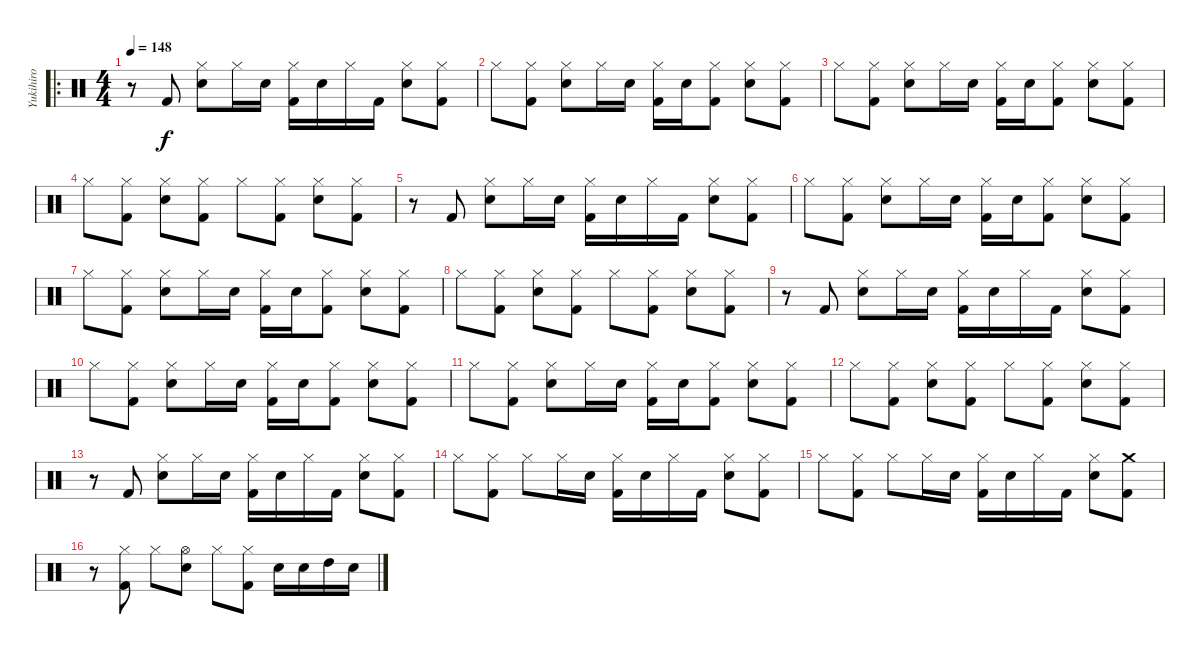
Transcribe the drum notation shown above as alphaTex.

\track ("Yukihiro" "Yukihiro") {instrument percussion}
\staff {score}
\articulation defaults
\ro
\ts (4 4)
\tempo 148
\clef neutral
\ks c
r.8{dy f} "Kick (hit) 2".8 ("Hi-Hat (closed)" "Snare (hit) 2").8 "Hi-Hat (closed)".16 "Snare (hit) 2".16 ("Hi-Hat (closed)" "Kick (hit) 2").16 "Snare (hit) 2".16 "Hi-Hat (closed)".16 "Kick (hit) 2".16 ("Hi-Hat (closed)" "Snare (hit) 2").8 ("Hi-Hat (closed)" "Kick (hit) 2").8 |
"Hi-Hat (closed)".8 ("Hi-Hat (closed)" "Kick (hit) 2").8 ("Hi-Hat (closed)" "Snare (hit) 2").8 "Hi-Hat (closed)".16 "Snare (hit) 2".16 ("Hi-Hat (closed)" "Kick (hit) 2").16 "Snare (hit) 2".16 ("Hi-Hat (closed)" "Kick (hit) 2").8 ("Hi-Hat (closed)" "Snare (hit) 2").8 ("Hi-Hat (closed)" "Kick (hit) 2").8 |
"Hi-Hat (closed)".8 ("Hi-Hat (closed)" "Kick (hit) 2").8 ("Hi-Hat (closed)" "Snare (hit) 2").8 "Hi-Hat (closed)".16 "Snare (hit) 2".16 ("Hi-Hat (closed)" "Kick (hit) 2").16 "Snare (hit) 2".16 ("Hi-Hat (closed)" "Kick (hit) 2").8 ("Hi-Hat (closed)" "Snare (hit) 2").8 ("Hi-Hat (closed)" "Kick (hit) 2").8 |
"Hi-Hat (closed)".8 ("Hi-Hat (closed)" "Kick (hit) 2").8 ("Hi-Hat (closed)" "Snare (hit) 2").8 ("Hi-Hat (closed)" "Kick (hit) 2").8 "Hi-Hat (closed)".8 ("Hi-Hat (closed)" "Kick (hit) 2").8 ("Hi-Hat (closed)" "Snare (hit) 2").8 ("Hi-Hat (closed)" "Kick (hit) 2").8 |
r.8 "Kick (hit) 2".8 ("Hi-Hat (closed)" "Snare (hit) 2").8 "Hi-Hat (closed)".16 "Snare (hit) 2".16 ("Hi-Hat (closed)" "Kick (hit) 2").16 "Snare (hit) 2".16 "Hi-Hat (closed)".16 "Kick (hit) 2".16 ("Hi-Hat (closed)" "Snare (hit) 2").8 ("Hi-Hat (closed)" "Kick (hit) 2").8 |
"Hi-Hat (closed)".8 ("Hi-Hat (closed)" "Kick (hit) 2").8 ("Hi-Hat (closed)" "Snare (hit) 2").8 "Hi-Hat (closed)".16 "Snare (hit) 2".16 ("Hi-Hat (closed)" "Kick (hit) 2").16 "Snare (hit) 2".16 ("Hi-Hat (closed)" "Kick (hit) 2").8 ("Hi-Hat (closed)" "Snare (hit) 2").8 ("Hi-Hat (closed)" "Kick (hit) 2").8 |
"Hi-Hat (closed)".8 ("Hi-Hat (closed)" "Kick (hit) 2").8 ("Hi-Hat (closed)" "Snare (hit) 2").8 "Hi-Hat (closed)".16 "Snare (hit) 2".16 ("Hi-Hat (closed)" "Kick (hit) 2").16 "Snare (hit) 2".16 ("Hi-Hat (closed)" "Kick (hit) 2").8 ("Hi-Hat (closed)" "Snare (hit) 2").8 ("Hi-Hat (closed)" "Kick (hit) 2").8 |
"Hi-Hat (closed)".8 ("Hi-Hat (closed)" "Kick (hit) 2").8 ("Hi-Hat (closed)" "Snare (hit) 2").8 ("Hi-Hat (closed)" "Kick (hit) 2").8 "Hi-Hat (closed)".8 ("Hi-Hat (closed)" "Kick (hit) 2").8 ("Hi-Hat (closed)" "Snare (hit) 2").8 ("Hi-Hat (closed)" "Kick (hit) 2").8 |
r.8 "Kick (hit) 2".8 ("Hi-Hat (closed)" "Snare (hit) 2").8 "Hi-Hat (closed)".16 "Snare (hit) 2".16 ("Hi-Hat (closed)" "Kick (hit) 2").16 "Snare (hit) 2".16 "Hi-Hat (closed)".16 "Kick (hit) 2".16 ("Hi-Hat (closed)" "Snare (hit) 2").8 ("Hi-Hat (closed)" "Kick (hit) 2").8 |
"Hi-Hat (closed)".8 ("Hi-Hat (closed)" "Kick (hit) 2").8 ("Hi-Hat (closed)" "Snare (hit) 2").8 "Hi-Hat (closed)".16 "Snare (hit) 2".16 ("Hi-Hat (closed)" "Kick (hit) 2").16 "Snare (hit) 2".16 ("Hi-Hat (closed)" "Kick (hit) 2").8 ("Hi-Hat (closed)" "Snare (hit) 2").8 ("Hi-Hat (closed)" "Kick (hit) 2").8 |
"Hi-Hat (closed)".8 ("Hi-Hat (closed)" "Kick (hit) 2").8 ("Hi-Hat (closed)" "Snare (hit) 2").8 "Hi-Hat (closed)".16 "Snare (hit) 2".16 ("Hi-Hat (closed)" "Kick (hit) 2").16 "Snare (hit) 2".16 ("Hi-Hat (closed)" "Kick (hit) 2").8 ("Hi-Hat (closed)" "Snare (hit) 2").8 ("Hi-Hat (closed)" "Kick (hit) 2").8 |
"Hi-Hat (closed)".8 ("Hi-Hat (closed)" "Kick (hit) 2").8 ("Hi-Hat (closed)" "Snare (hit) 2").8 ("Hi-Hat (closed)" "Kick (hit) 2").8 "Hi-Hat (closed)".8 ("Hi-Hat (closed)" "Kick (hit) 2").8 ("Hi-Hat (closed)" "Snare (hit) 2").8 ("Hi-Hat (closed)" "Kick (hit) 2").8 |
r.8 "Kick (hit) 2".8 ("Hi-Hat (closed)" "Snare (hit) 2").8 "Hi-Hat (closed)".16 "Snare (hit) 2".16 ("Hi-Hat (closed)" "Kick (hit) 2").16 "Snare (hit) 2".16 "Hi-Hat (closed)".16 "Kick (hit) 2".16 ("Hi-Hat (closed)" "Snare (hit) 2").8 ("Hi-Hat (closed)" "Kick (hit) 2").8 |
"Hi-Hat (closed)".8 ("Hi-Hat (closed)" "Kick (hit) 2").8 "Hi-Hat (closed)".8 "Hi-Hat (closed)".16 "Snare (hit) 2".16 ("Hi-Hat (closed)" "Kick (hit) 2").16 "Snare (hit) 2".16 "Hi-Hat (closed)".16 "Kick (hit) 2".16 ("Hi-Hat (closed)" "Snare (hit) 2").8 ("Hi-Hat (closed)" "Kick (hit) 2").8 |
"Hi-Hat (closed)".8 ("Hi-Hat (closed)" "Kick (hit) 2").8 "Hi-Hat (closed)".8 "Hi-Hat (closed)".16 "Snare (hit) 2".16 ("Hi-Hat (closed)" "Kick (hit) 2").16 "Snare (hit) 2".16 "Hi-Hat (closed)".16 "Kick (hit) 2".16 ("Hi-Hat (closed)" "Snare (hit) 2").8 ("Crash medium (hit)" "Kick (hit) 2").8 |
r.8 ("Hi-Hat (closed)" "Kick (hit) 2").8 "Hi-Hat (closed)".8 ("Hi-Hat (open)" "Snare (hit) 2").8 "Hi-Hat (closed)".8 ("Hi-Hat (closed)" "Kick (hit) 2").8 "Snare (hit) 2".16 "Snare (hit) 2".16 "High Tom (hit)".16 "Snare (hit) 2".16
